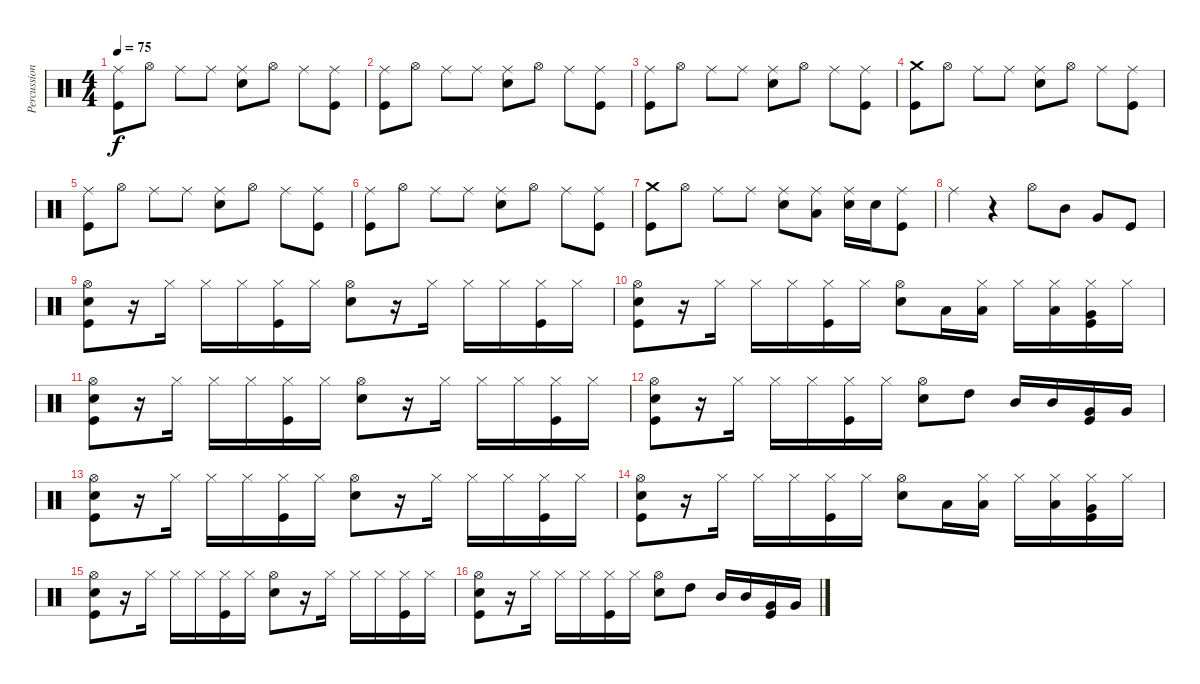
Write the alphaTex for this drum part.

\track ("Percussion" "Percussion") {instrument percussion}
\staff {score}
\articulation defaults
\ts (4 4)
\tempo 75
\clef neutral
\ks c
("Ride (middle)" "Kick (hit)").8{dy f} "Hi-Hat (open)".8 "Ride (middle)".8 "Ride (middle)".8 ("Snare (hit) 2" "Ride (middle)").8 "Hi-Hat (open)".8 "Ride (middle)".8 ("Kick (hit)" "Ride (middle)").8 |
("Ride (middle)" "Kick (hit)").8 "Hi-Hat (open)".8 "Ride (middle)".8 "Ride (middle)".8 ("Snare (hit) 2" "Ride (middle)").8 "Hi-Hat (open)".8 "Ride (middle)".8 ("Kick (hit)" "Ride (middle)").8 |
("Ride (middle)" "Kick (hit)").8 "Hi-Hat (open)".8 "Ride (middle)".8 "Ride (middle)".8 ("Snare (hit) 2" "Ride (middle)").8 "Hi-Hat (open)".8 "Ride (middle)".8 ("Kick (hit)" "Ride (middle)").8 |
("Crash medium (hit)" "Kick (hit)").8 "Hi-Hat (open)".8 "Ride (middle)".8 "Ride (middle)".8 ("Snare (hit) 2" "Ride (middle)").8 "Hi-Hat (open)".8 "Ride (middle)".8 ("Kick (hit)" "Ride (middle)").8 |
("Ride (middle)" "Kick (hit)").8 "Hi-Hat (open)".8 "Ride (middle)".8 "Ride (middle)".8 ("Snare (hit) 2" "Ride (middle)").8 "Hi-Hat (open)".8 "Ride (middle)".8 ("Kick (hit)" "Ride (middle)").8 |
("Ride (middle)" "Kick (hit)").8 "Hi-Hat (open)".8 "Ride (middle)".8 "Ride (middle)".8 ("Snare (hit) 2" "Ride (middle)").8 "Hi-Hat (open)".8 "Ride (middle)".8 ("Kick (hit)" "Ride (middle)").8 |
("Crash medium (hit)" "Kick (hit)").8 "Hi-Hat (open)".8 "Ride (middle)".8 "Ride (middle)".8 ("Snare (hit) 2" "Ride (middle)").8 ("Low Floor Tom (hit)" "Ride (middle)").8 ("Snare (hit) 2" "Ride (middle)").16 "Snare (hit) 2".16 ("Kick (hit)" "Ride (middle)").8 |
"Ride (middle)".4 r.4 "Hi-Hat (open)".8 "Mid Tom (hit)".8 "Very Low Tom (hit)".8 "Kick (hit)".8 |
("Hi-Hat (open)" "Kick (hit)" "Snare (hit) 2").8 r.16 "Hi-Hat (closed)".16 "Hi-Hat (closed)".16 "Hi-Hat (closed)".16 ("Kick (hit)" "Hi-Hat (closed)").16 "Hi-Hat (closed)".16 ("Snare (hit) 2" "Hi-Hat (open)").8 r.16 "Hi-Hat (closed)".16 "Hi-Hat (closed)".16 "Hi-Hat (closed)".16 ("Kick (hit)" "Hi-Hat (closed)").16 "Hi-Hat (closed)".16 |
("Hi-Hat (open)" "Kick (hit)" "Snare (hit) 2").8 r.16 "Hi-Hat (closed)".16 "Hi-Hat (closed)".16 "Hi-Hat (closed)".16 ("Kick (hit)" "Hi-Hat (closed)").16 "Hi-Hat (closed)".16 ("Snare (hit) 2" "Hi-Hat (open)").8 "Low Tom (hit)".16 ("Low Tom (hit)" "Hi-Hat (closed)").16 "Hi-Hat (closed)".16 ("Low Tom (hit)" "Hi-Hat (closed)").16 ("Very Low Tom (hit)" "Kick (hit)" "Hi-Hat (closed)").16 "Hi-Hat (closed)".16 |
("Hi-Hat (open)" "Kick (hit)" "Snare (hit) 2").8 r.16 "Hi-Hat (closed)".16 "Hi-Hat (closed)".16 "Hi-Hat (closed)".16 ("Kick (hit)" "Hi-Hat (closed)").16 "Hi-Hat (closed)".16 ("Snare (hit) 2" "Hi-Hat (open)").8 r.16 "Hi-Hat (closed)".16 "Hi-Hat (closed)".16 "Hi-Hat (closed)".16 ("Kick (hit)" "Hi-Hat (closed)").16 "Hi-Hat (closed)".16 |
("Hi-Hat (open)" "Kick (hit)" "Snare (hit) 2").8 r.16 "Hi-Hat (closed)".16 "Hi-Hat (closed)".16 "Hi-Hat (closed)".16 ("Kick (hit)" "Hi-Hat (closed)").16 "Hi-Hat (closed)".16 ("Snare (hit) 2" "Hi-Hat (open)").8 "High Tom (hit)".8 "Mid Tom (hit)".16 "Mid Tom (hit)".16 ("Very Low Tom (hit)" "Kick (hit)").16 "Very Low Tom (hit)".16 |
("Hi-Hat (open)" "Kick (hit)" "Snare (hit) 2").8 r.16 "Hi-Hat (closed)".16 "Hi-Hat (closed)".16 "Hi-Hat (closed)".16 ("Kick (hit)" "Hi-Hat (closed)").16 "Hi-Hat (closed)".16 ("Snare (hit) 2" "Hi-Hat (open)").8 r.16 "Hi-Hat (closed)".16 "Hi-Hat (closed)".16 "Hi-Hat (closed)".16 ("Kick (hit)" "Hi-Hat (closed)").16 "Hi-Hat (closed)".16 |
("Hi-Hat (open)" "Kick (hit)" "Snare (hit) 2").8 r.16 "Hi-Hat (closed)".16 "Hi-Hat (closed)".16 "Hi-Hat (closed)".16 ("Kick (hit)" "Hi-Hat (closed)").16 "Hi-Hat (closed)".16 ("Snare (hit) 2" "Hi-Hat (open)").8 "Low Tom (hit)".16 ("Low Tom (hit)" "Hi-Hat (closed)").16 "Hi-Hat (closed)".16 ("Low Tom (hit)" "Hi-Hat (closed)").16 ("Very Low Tom (hit)" "Kick (hit)" "Hi-Hat (closed)").16 "Hi-Hat (closed)".16 |
("Hi-Hat (open)" "Kick (hit)" "Snare (hit) 2").8 r.16 "Hi-Hat (closed)".16 "Hi-Hat (closed)".16 "Hi-Hat (closed)".16 ("Kick (hit)" "Hi-Hat (closed)").16 "Hi-Hat (closed)".16 ("Snare (hit) 2" "Hi-Hat (open)").8 r.16 "Hi-Hat (closed)".16 "Hi-Hat (closed)".16 "Hi-Hat (closed)".16 ("Kick (hit)" "Hi-Hat (closed)").16 "Hi-Hat (closed)".16 |
("Hi-Hat (open)" "Kick (hit)" "Snare (hit) 2").8 r.16 "Hi-Hat (closed)".16 "Hi-Hat (closed)".16 "Hi-Hat (closed)".16 ("Kick (hit)" "Hi-Hat (closed)").16 "Hi-Hat (closed)".16 ("Snare (hit) 2" "Hi-Hat (open)").8 "High Tom (hit)".8 "Mid Tom (hit)".16 "Mid Tom (hit)".16 ("Very Low Tom (hit)" "Kick (hit)").16 "Very Low Tom (hit)".16
